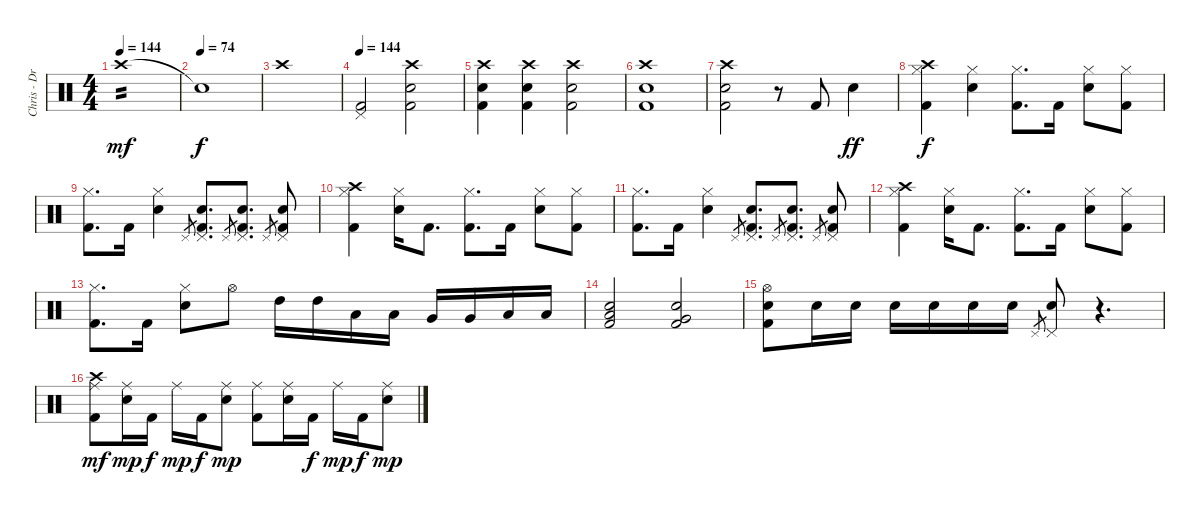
\track ("Chris - Drums" "Chris - Dr") {instrument percussion}
\staff {score}
\articulation defaults
\ts (4 4)
\tempo 144
\clef neutral
\ks c "Crash high (hit)".1{tp 2 dy mf}
|
\tempo (74)
"Snare (hit)"{t}.1{dy f} |
"Crash high (hit)".1 |
\tempo 144
("Pedal Hi-Hat (hit)" "Kick (hit) 2").2 ("Crash high (hit)" "Electric Snare (hit)" "Kick (hit) 2").2 |
("Crash high (hit)" "Electric Snare (hit)" "Kick (hit) 2").4 ("Crash high (hit)" "Electric Snare (hit)" "Kick (hit) 2").4 ("Crash high (hit)" "Electric Snare (hit)" "Kick (hit) 2").2 |
("Crash high (hit)" "Electric Snare (hit)" "Kick (hit) 2").1 |
("Crash high (hit)" "Electric Snare (hit)" "Kick (hit) 2").2 r.8 "Kick (hit) 2".8 "Electric Snare (hit)".4{dy ff} |
("Crash high (hit)" "Hi-Hat (closed)" "Kick (hit) 2").4{dy f} ("Hi-Hat (closed)" "Electric Snare (hit)").4 ("Hi-Hat (closed)" "Kick (hit) 2").8{d} "Kick (hit) 2".16 ("Hi-Hat (closed)" "Electric Snare (hit)").8 ("Hi-Hat (closed)" "Kick (hit) 2").8 |
("Hi-Hat (closed)" "Kick (hit) 2").8{d} "Kick (hit) 2".16 ("Hi-Hat (closed)" "Electric Snare (hit)").4 "Pedal Hi-Hat (hit)".8{gr} ("Pedal Hi-Hat (hit)" "Electric Snare (hit)" "Kick (hit) 2").8{d} "Pedal Hi-Hat (hit)".8{gr} ("Pedal Hi-Hat (hit)" "Electric Snare (hit)" "Kick (hit) 2").8{d} "Pedal Hi-Hat (hit)".8{gr} ("Pedal Hi-Hat (hit)" "Electric Snare (hit)" "Kick (hit) 2").8 |
("Crash high (hit)" "Hi-Hat (closed)" "Kick (hit) 2").4 ("Hi-Hat (closed)" "Electric Snare (hit)").16 "Kick (hit) 2".8{d} ("Hi-Hat (closed)" "Kick (hit) 2").8{d} "Kick (hit) 2".16 ("Hi-Hat (closed)" "Electric Snare (hit)").8 ("Hi-Hat (closed)" "Kick (hit) 2").8 |
("Hi-Hat (closed)" "Kick (hit) 2").8{d} "Kick (hit) 2".16 ("Hi-Hat (closed)" "Electric Snare (hit)").4 "Pedal Hi-Hat (hit)".8{gr} ("Pedal Hi-Hat (hit)" "Electric Snare (hit)" "Kick (hit) 2").8{d} "Pedal Hi-Hat (hit)".8{gr} ("Pedal Hi-Hat (hit)" "Electric Snare (hit)" "Kick (hit) 2").8{d} "Pedal Hi-Hat (hit)".8{gr} ("Pedal Hi-Hat (hit)" "Electric Snare (hit)" "Kick (hit) 2").8 |
("Crash high (hit)" "Hi-Hat (closed)" "Kick (hit) 2").4 ("Hi-Hat (closed)" "Electric Snare (hit)").16 "Kick (hit) 2".8{d} ("Hi-Hat (closed)" "Kick (hit) 2").8{d} "Kick (hit) 2".16 ("Hi-Hat (closed)" "Electric Snare (hit)").8 ("Hi-Hat (closed)" "Kick (hit) 2").8 |
("Hi-Hat (closed)" "Kick (hit) 2").8{d} "Kick (hit) 2".16 ("Hi-Hat (closed)" "Electric Snare (hit)").8 "Hi-Hat (open)".8 "High Tom (hit)".16 "High Tom (hit)".16 "Low Tom (hit)".16 "Low Tom (hit)".16 "Very Low Tom (hit)".16 "Very Low Tom (hit)".16 "Low Floor Tom (hit)".16 "Low Floor Tom (hit)".16 |
("Low Tom (hit)" "Electric Snare (hit)" "Kick (hit) 2").2 ("Very Low Tom (hit)" "Electric Snare (hit)" "Kick (hit) 2").2 |
("Hi-Hat (open)" "Electric Snare (hit)" "Kick (hit) 2").8 "Electric Snare (hit)".16 "Electric Snare (hit)".16 "Electric Snare (hit)".16 "Electric Snare (hit)".16 "Electric Snare (hit)".16 "Electric Snare (hit)".16 "Pedal Hi-Hat (hit)".8{gr} ("Pedal Hi-Hat (hit)" "Electric Snare (hit)").8 r.4{d} |
("Ride (middle)" "Crash high (hit)" "Kick (hit) 2").8{dy mf} ("Ride (middle)" "Electric Snare (hit)").16{dy mp} "Kick (hit) 2".16{dy f} "Ride (middle)".16{dy mp} "Kick (hit) 2".16{dy f} ("Ride (middle)" "Electric Snare (hit)").8{dy mp} ("Ride (middle)" "Kick (hit) 2").8 ("Ride (middle)" "Electric Snare (hit)").16 "Kick (hit) 2".16{dy f} "Ride (middle)".16{dy mp} "Kick (hit) 2".16{dy f} ("Ride (middle)" "Electric Snare (hit)").8{dy mp}
